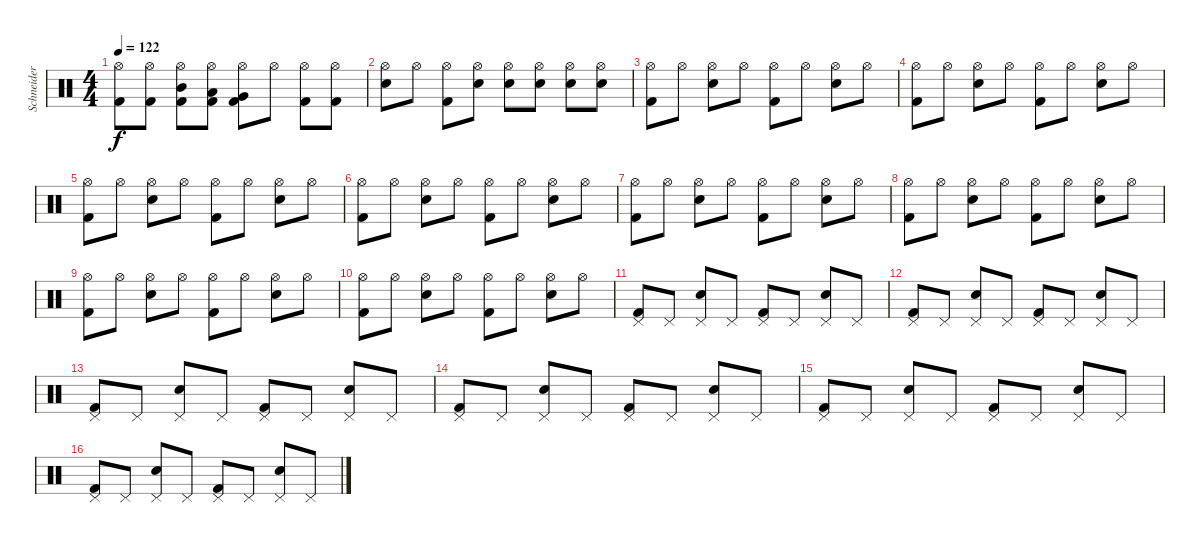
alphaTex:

\track ("Schneider" "Schneider") {instrument percussion}
\staff {score}
\articulation defaults
\ts (4 4)
\tempo 122
\clef neutral
\ks c
("Hi-Hat (open)" "Kick (hit) 2").8{dy f} ("Hi-Hat (open)" "Kick (hit) 2").8 ("Hi-Hat (open)" "Mid Tom (hit)" "Kick (hit) 2").8 ("Hi-Hat (open)" "Low Tom (hit)" "Kick (hit) 2").8 ("Hi-Hat (open)" "Very Low Tom (hit)" "Kick (hit) 2").8 "Hi-Hat (open)".8 ("Hi-Hat (open)" "Kick (hit) 2").8 ("Hi-Hat (open)" "Kick (hit) 2").8 |
("Hi-Hat (open)" "Snare (hit) 2").8 "Hi-Hat (open)".8 ("Hi-Hat (open)" "Kick (hit) 2").8 ("Hi-Hat (open)" "Snare (hit) 2").8 ("Hi-Hat (open)" "Snare (hit) 2").8 ("Hi-Hat (open)" "Snare (hit) 2").8 ("Hi-Hat (open)" "Snare (hit) 2").8 ("Hi-Hat (open)" "Snare (hit) 2").8 |
("Hi-Hat (open)" "Kick (hit) 2").8 "Hi-Hat (open)".8 ("Hi-Hat (open)" "Snare (hit) 2").8 "Hi-Hat (open)".8 ("Hi-Hat (open)" "Kick (hit) 2").8 "Hi-Hat (open)".8 ("Hi-Hat (open)" "Snare (hit) 2").8 "Hi-Hat (open)".8 |
("Hi-Hat (open)" "Kick (hit) 2").8 "Hi-Hat (open)".8 ("Hi-Hat (open)" "Snare (hit) 2").8 "Hi-Hat (open)".8 ("Hi-Hat (open)" "Kick (hit) 2").8 "Hi-Hat (open)".8 ("Hi-Hat (open)" "Snare (hit) 2").8 "Hi-Hat (open)".8 |
("Hi-Hat (open)" "Kick (hit) 2").8 "Hi-Hat (open)".8 ("Hi-Hat (open)" "Snare (hit) 2").8 "Hi-Hat (open)".8 ("Hi-Hat (open)" "Kick (hit) 2").8 "Hi-Hat (open)".8 ("Hi-Hat (open)" "Snare (hit) 2").8 "Hi-Hat (open)".8 |
("Hi-Hat (open)" "Kick (hit) 2").8 "Hi-Hat (open)".8 ("Hi-Hat (open)" "Snare (hit) 2").8 "Hi-Hat (open)".8 ("Hi-Hat (open)" "Kick (hit) 2").8 "Hi-Hat (open)".8 ("Hi-Hat (open)" "Snare (hit) 2").8 "Hi-Hat (open)".8 |
("Hi-Hat (open)" "Kick (hit) 2").8 "Hi-Hat (open)".8 ("Hi-Hat (open)" "Snare (hit) 2").8 "Hi-Hat (open)".8 ("Hi-Hat (open)" "Kick (hit) 2").8 "Hi-Hat (open)".8 ("Hi-Hat (open)" "Snare (hit) 2").8 "Hi-Hat (open)".8 |
("Hi-Hat (open)" "Kick (hit) 2").8 "Hi-Hat (open)".8 ("Hi-Hat (open)" "Snare (hit) 2").8 "Hi-Hat (open)".8 ("Hi-Hat (open)" "Kick (hit) 2").8 "Hi-Hat (open)".8 ("Hi-Hat (open)" "Snare (hit) 2").8 "Hi-Hat (open)".8 |
("Hi-Hat (open)" "Kick (hit) 2").8 "Hi-Hat (open)".8 ("Hi-Hat (open)" "Snare (hit) 2").8 "Hi-Hat (open)".8 ("Hi-Hat (open)" "Kick (hit) 2").8 "Hi-Hat (open)".8 ("Hi-Hat (open)" "Snare (hit) 2").8 "Hi-Hat (open)".8 |
("Hi-Hat (open)" "Kick (hit) 2").8 "Hi-Hat (open)".8 ("Hi-Hat (open)" "Snare (hit) 2").8 "Hi-Hat (open)".8 ("Hi-Hat (open)" "Kick (hit) 2").8 "Hi-Hat (open)".8 ("Hi-Hat (open)" "Snare (hit) 2").8 "Hi-Hat (open)".8 |
("Pedal Hi-Hat (hit)" "Kick (hit) 2").8 "Pedal Hi-Hat (hit)".8 ("Pedal Hi-Hat (hit)" "Snare (hit) 2").8 "Pedal Hi-Hat (hit)".8 ("Pedal Hi-Hat (hit)" "Kick (hit) 2").8 "Pedal Hi-Hat (hit)".8 ("Pedal Hi-Hat (hit)" "Snare (hit) 2").8 "Pedal Hi-Hat (hit)".8 |
("Pedal Hi-Hat (hit)" "Kick (hit) 2").8 "Pedal Hi-Hat (hit)".8 ("Pedal Hi-Hat (hit)" "Snare (hit) 2").8 "Pedal Hi-Hat (hit)".8 ("Pedal Hi-Hat (hit)" "Kick (hit) 2").8 "Pedal Hi-Hat (hit)".8 ("Pedal Hi-Hat (hit)" "Snare (hit) 2").8 "Pedal Hi-Hat (hit)".8 |
("Pedal Hi-Hat (hit)" "Kick (hit) 2").8 "Pedal Hi-Hat (hit)".8 ("Pedal Hi-Hat (hit)" "Snare (hit) 2").8 "Pedal Hi-Hat (hit)".8 ("Pedal Hi-Hat (hit)" "Kick (hit) 2").8 "Pedal Hi-Hat (hit)".8 ("Pedal Hi-Hat (hit)" "Snare (hit) 2").8 "Pedal Hi-Hat (hit)".8 |
("Pedal Hi-Hat (hit)" "Kick (hit) 2").8 "Pedal Hi-Hat (hit)".8 ("Pedal Hi-Hat (hit)" "Snare (hit) 2").8 "Pedal Hi-Hat (hit)".8 ("Pedal Hi-Hat (hit)" "Kick (hit) 2").8 "Pedal Hi-Hat (hit)".8 ("Pedal Hi-Hat (hit)" "Snare (hit) 2").8 "Pedal Hi-Hat (hit)".8 |
("Pedal Hi-Hat (hit)" "Kick (hit) 2").8 "Pedal Hi-Hat (hit)".8 ("Pedal Hi-Hat (hit)" "Snare (hit) 2").8 "Pedal Hi-Hat (hit)".8 ("Pedal Hi-Hat (hit)" "Kick (hit) 2").8 "Pedal Hi-Hat (hit)".8 ("Pedal Hi-Hat (hit)" "Snare (hit) 2").8 "Pedal Hi-Hat (hit)".8 |
("Pedal Hi-Hat (hit)" "Kick (hit) 2").8 "Pedal Hi-Hat (hit)".8 ("Pedal Hi-Hat (hit)" "Snare (hit) 2").8 "Pedal Hi-Hat (hit)".8 ("Pedal Hi-Hat (hit)" "Kick (hit) 2").8 "Pedal Hi-Hat (hit)".8 ("Pedal Hi-Hat (hit)" "Snare (hit) 2").8 "Pedal Hi-Hat (hit)".8
